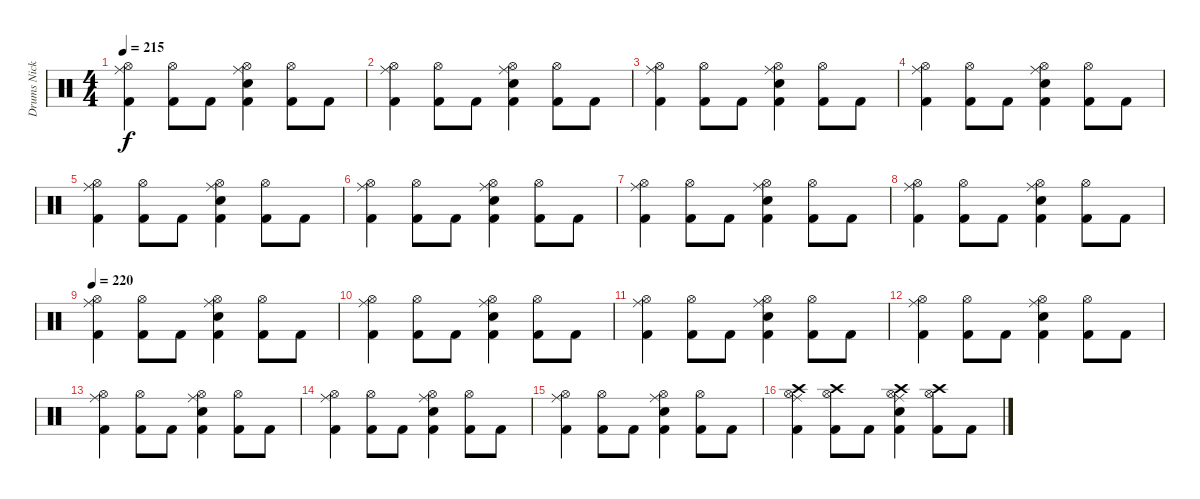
\track ("Drums Nicko McBrain" "Drums Nick") {instrument percussion}
\staff {score}
\articulation defaults
\ts (4 4)
\tempo 215
\clef neutral
\ks c
("Hi-Hat (open)" "Ride (middle)" "Kick (hit) 2").4{dy f} ("Hi-Hat (open)" "Kick (hit) 2").8 "Kick (hit) 2".8 ("Hi-Hat (open)" "Snare (hit) 2" "Ride (middle)" "Kick (hit) 2").4 ("Hi-Hat (open)" "Kick (hit) 2").8 "Kick (hit) 2".8 |
("Hi-Hat (open)" "Ride (middle)" "Kick (hit) 2").4 ("Hi-Hat (open)" "Kick (hit) 2").8 "Kick (hit) 2".8 ("Hi-Hat (open)" "Snare (hit) 2" "Ride (middle)" "Kick (hit) 2").4 ("Hi-Hat (open)" "Kick (hit) 2").8 "Kick (hit) 2".8 |
("Hi-Hat (open)" "Ride (middle)" "Kick (hit) 2").4 ("Hi-Hat (open)" "Kick (hit) 2").8 "Kick (hit) 2".8 ("Hi-Hat (open)" "Snare (hit) 2" "Ride (middle)" "Kick (hit) 2").4 ("Hi-Hat (open)" "Kick (hit) 2").8 "Kick (hit) 2".8 |
("Hi-Hat (open)" "Ride (middle)" "Kick (hit) 2").4 ("Hi-Hat (open)" "Kick (hit) 2").8 "Kick (hit) 2".8 ("Hi-Hat (open)" "Snare (hit) 2" "Ride (middle)" "Kick (hit) 2").4 ("Hi-Hat (open)" "Kick (hit) 2").8 "Kick (hit) 2".8 |
("Hi-Hat (open)" "Ride (middle)" "Kick (hit) 2").4 ("Hi-Hat (open)" "Kick (hit) 2").8 "Kick (hit) 2".8 ("Hi-Hat (open)" "Snare (hit) 2" "Ride (middle)" "Kick (hit) 2").4 ("Hi-Hat (open)" "Kick (hit) 2").8 "Kick (hit) 2".8 |
("Hi-Hat (open)" "Ride (middle)" "Kick (hit) 2").4 ("Hi-Hat (open)" "Kick (hit) 2").8 "Kick (hit) 2".8 ("Hi-Hat (open)" "Snare (hit) 2" "Ride (middle)" "Kick (hit) 2").4 ("Hi-Hat (open)" "Kick (hit) 2").8 "Kick (hit) 2".8 |
("Hi-Hat (open)" "Ride (middle)" "Kick (hit) 2").4 ("Hi-Hat (open)" "Kick (hit) 2").8 "Kick (hit) 2".8 ("Hi-Hat (open)" "Snare (hit) 2" "Ride (middle)" "Kick (hit) 2").4 ("Hi-Hat (open)" "Kick (hit) 2").8 "Kick (hit) 2".8 |
("Hi-Hat (open)" "Ride (middle)" "Kick (hit) 2").4 ("Hi-Hat (open)" "Kick (hit) 2").8 "Kick (hit) 2".8 ("Hi-Hat (open)" "Snare (hit) 2" "Ride (middle)" "Kick (hit) 2").4 ("Hi-Hat (open)" "Kick (hit) 2").8 "Kick (hit) 2".8 |
\tempo 220
("Hi-Hat (open)" "Ride (middle)" "Kick (hit) 2").4 ("Hi-Hat (open)" "Kick (hit) 2").8 "Kick (hit) 2".8 ("Hi-Hat (open)" "Snare (hit) 2" "Ride (middle)" "Kick (hit) 2").4 ("Hi-Hat (open)" "Kick (hit) 2").8 "Kick (hit) 2".8 |
("Hi-Hat (open)" "Ride (middle)" "Kick (hit) 2").4 ("Hi-Hat (open)" "Kick (hit) 2").8 "Kick (hit) 2".8 ("Hi-Hat (open)" "Snare (hit) 2" "Ride (middle)" "Kick (hit) 2").4 ("Hi-Hat (open)" "Kick (hit) 2").8 "Kick (hit) 2".8 |
("Hi-Hat (open)" "Ride (middle)" "Kick (hit) 2").4 ("Hi-Hat (open)" "Kick (hit) 2").8 "Kick (hit) 2".8 ("Hi-Hat (open)" "Snare (hit) 2" "Ride (middle)" "Kick (hit) 2").4 ("Hi-Hat (open)" "Kick (hit) 2").8 "Kick (hit) 2".8 |
("Hi-Hat (open)" "Ride (middle)" "Kick (hit) 2").4 ("Hi-Hat (open)" "Kick (hit) 2").8 "Kick (hit) 2".8 ("Hi-Hat (open)" "Snare (hit) 2" "Ride (middle)" "Kick (hit) 2").4 ("Hi-Hat (open)" "Kick (hit) 2").8 "Kick (hit) 2".8 |
("Hi-Hat (open)" "Ride (middle)" "Kick (hit) 2").4 ("Hi-Hat (open)" "Kick (hit) 2").8 "Kick (hit) 2".8 ("Hi-Hat (open)" "Snare (hit) 2" "Ride (middle)" "Kick (hit) 2").4 ("Hi-Hat (open)" "Kick (hit) 2").8 "Kick (hit) 2".8 |
("Hi-Hat (open)" "Ride (middle)" "Kick (hit) 2").4 ("Hi-Hat (open)" "Kick (hit) 2").8 "Kick (hit) 2".8 ("Hi-Hat (open)" "Snare (hit) 2" "Ride (middle)" "Kick (hit) 2").4 ("Hi-Hat (open)" "Kick (hit) 2").8 "Kick (hit) 2".8 |
("Hi-Hat (open)" "Ride (middle)" "Kick (hit) 2").4 ("Hi-Hat (open)" "Kick (hit) 2").8 "Kick (hit) 2".8 ("Hi-Hat (open)" "Snare (hit) 2" "Ride (middle)" "Kick (hit) 2").4 ("Hi-Hat (open)" "Kick (hit) 2").8 "Kick (hit) 2".8 |
("Hi-Hat (open)" "Ride (middle)" "Crash high (hit)" "Kick (hit) 2").4 ("Hi-Hat (open)" "Crash high (hit)" "Kick (hit) 2").8 "Kick (hit) 2".8 ("Hi-Hat (open)" "Snare (hit) 2" "Ride (middle)" "Kick (hit) 2" "Crash high (hit)").4 ("Hi-Hat (open)" "Kick (hit) 2" "Crash high (hit)").8 "Kick (hit) 2".8
